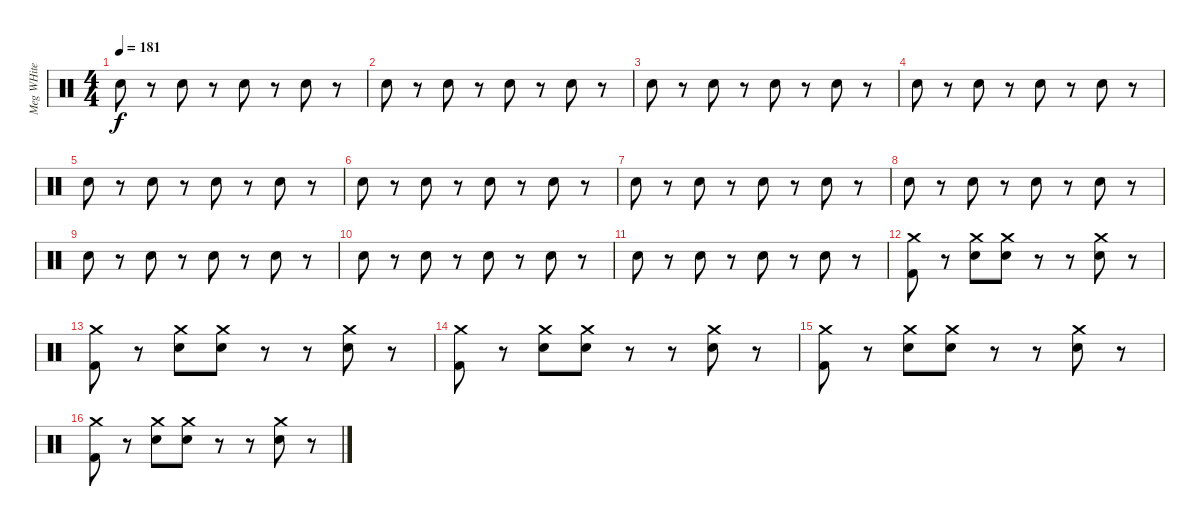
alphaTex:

\track ("Meg WHite" "Meg WHite") {instrument percussion}
\staff {score}
\articulation defaults
\ts (4 4)
\tempo 181
\clef neutral
\ks c "Electric Snare (hit)".8{dy f}
r.8 "Electric Snare (hit)".8 r.8 "Electric Snare (hit)".8 r.8 "Electric Snare (hit)".8 r.8 |
"Electric Snare (hit)".8 r.8 "Electric Snare (hit)".8 r.8 "Electric Snare (hit)".8 r.8 "Electric Snare (hit)".8 r.8 |
"Electric Snare (hit)".8 r.8 "Electric Snare (hit)".8 r.8 "Electric Snare (hit)".8 r.8 "Electric Snare (hit)".8 r.8 |
"Electric Snare (hit)".8 r.8 "Electric Snare (hit)".8 r.8 "Electric Snare (hit)".8 r.8 "Electric Snare (hit)".8 r.8 |
"Electric Snare (hit)".8 r.8 "Electric Snare (hit)".8 r.8 "Electric Snare (hit)".8 r.8 "Electric Snare (hit)".8 r.8 |
"Electric Snare (hit)".8 r.8 "Electric Snare (hit)".8 r.8 "Electric Snare (hit)".8 r.8 "Electric Snare (hit)".8 r.8 |
"Electric Snare (hit)".8 r.8 "Electric Snare (hit)".8 r.8 "Electric Snare (hit)".8 r.8 "Electric Snare (hit)".8 r.8 |
"Electric Snare (hit)".8 r.8 "Electric Snare (hit)".8 r.8 "Electric Snare (hit)".8 r.8 "Electric Snare (hit)".8 r.8 |
"Electric Snare (hit)".8 r.8 "Electric Snare (hit)".8 r.8 "Electric Snare (hit)".8 r.8 "Electric Snare (hit)".8 r.8 |
"Electric Snare (hit)".8 r.8 "Electric Snare (hit)".8 r.8 "Electric Snare (hit)".8 r.8 "Electric Snare (hit)".8 r.8 |
"Electric Snare (hit)".8 r.8 "Electric Snare (hit)".8 r.8 "Electric Snare (hit)".8 r.8 "Electric Snare (hit)".8 r.8 |
("Crash medium (hit)" "Kick (hit) 2").8 r.8 ("Crash medium (hit)" "Electric Snare (hit)").8 ("Crash medium (hit)" "Electric Snare (hit)").8 r.8 r.8 ("Crash medium (hit)" "Electric Snare (hit)").8 r.8 |
("Crash medium (hit)" "Kick (hit) 2").8 r.8 ("Crash medium (hit)" "Electric Snare (hit)").8 ("Crash medium (hit)" "Electric Snare (hit)").8 r.8 r.8 ("Crash medium (hit)" "Electric Snare (hit)").8 r.8 |
("Crash medium (hit)" "Kick (hit) 2").8 r.8 ("Crash medium (hit)" "Electric Snare (hit)").8 ("Crash medium (hit)" "Electric Snare (hit)").8 r.8 r.8 ("Crash medium (hit)" "Electric Snare (hit)").8 r.8 |
("Crash medium (hit)" "Kick (hit) 2").8 r.8 ("Crash medium (hit)" "Electric Snare (hit)").8 ("Crash medium (hit)" "Electric Snare (hit)").8 r.8 r.8 ("Crash medium (hit)" "Electric Snare (hit)").8 r.8 |
("Crash medium (hit)" "Kick (hit) 2").8 r.8 ("Crash medium (hit)" "Electric Snare (hit)").8 ("Crash medium (hit)" "Electric Snare (hit)").8 r.8 r.8 ("Crash medium (hit)" "Electric Snare (hit)").8 r.8
